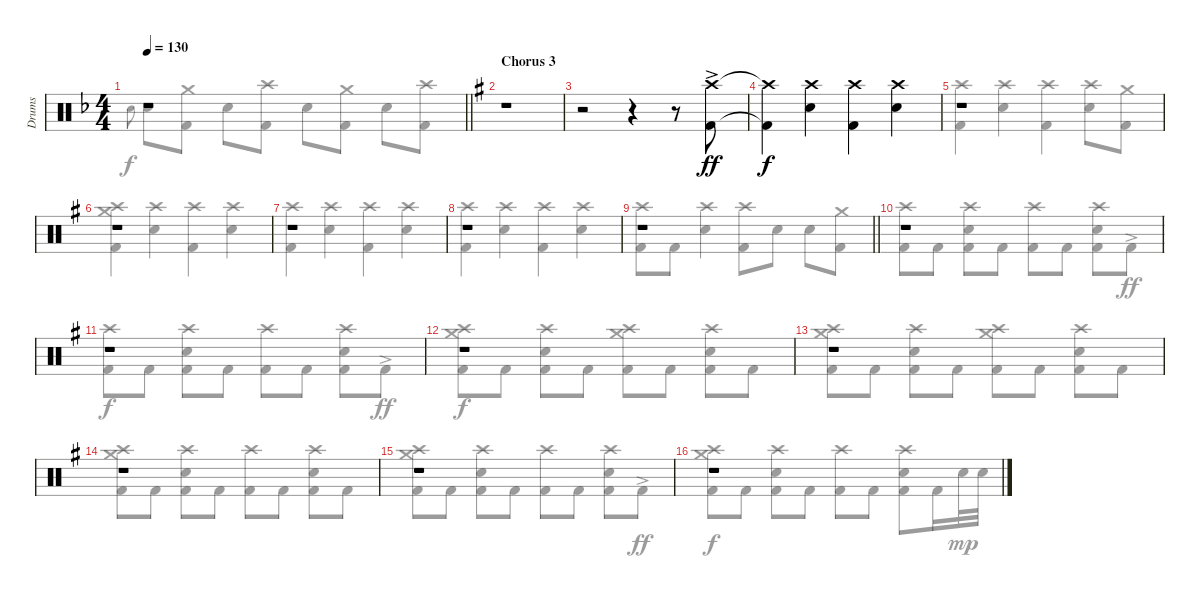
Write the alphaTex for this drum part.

\track ("Drums" "Drums") {instrument percussion}
\staff {score}
\articulation defaults
\voice
\ts (4 4)
\tempo 130
\clef neutral
\barLineRight lightlight
\ks dminor
r.1{dy ff} |
\section ("" "Chorus 3")
\ks eminor
r.1 |
r.2 r.4 r.8 ("Crash high (hit)"{ac} "Kick (hit) 2"{ac}).8 |
("Crash high (hit)"{t} "Kick (hit) 2"{t}).4{dy f} ("Crash high (hit)" "Snare (hit) 2").4 ("Crash high (hit)" "Kick (hit) 2").4 ("Crash high (hit)" "Snare (hit) 2").4 |
r.1 |
r.1 |
r.1 |
r.1 |
\barLineRight lightlight
r.1 |
r.1 |
r.1 |
r.1 |
r.1 |
r.1 |
r.1 |
r.1
\voice
\clef neutral
\ottava regular
\simile none
\barLineRight lightlight
\ks dminor "Snare (hit) 2".8{gr onbeat dy f} "Snare (hit) 2".8
("Crash medium (hit)" "Kick (hit) 2").8 "Snare (hit) 2".8 ("Crash high (hit)" "Kick (hit) 2").8 "Snare (hit) 2".8 ("Crash medium (hit)" "Kick (hit) 2").8 "Snare (hit) 2".8 ("Crash high (hit)" "Kick (hit) 2").8 |
\ks eminor
|
|
|
("Crash high (hit)" "Kick (hit) 2").4 ("Crash high (hit)" "Snare (hit) 2").4 ("Crash high (hit)" "Kick (hit) 2").4 ("Crash high (hit)" "Snare (hit) 2").8 ("Crash medium (hit)" "Kick (hit) 2").8 |
("Crash medium (hit)" "Crash high (hit)" "Kick (hit) 2").4 ("Crash high (hit)" "Snare (hit) 2").4 ("Crash high (hit)" "Kick (hit) 2").4 ("Crash high (hit)" "Snare (hit) 2").4 |
("Crash high (hit)" "Kick (hit) 2").4 ("Crash high (hit)" "Snare (hit) 2").4 ("Crash high (hit)" "Kick (hit) 2").4 ("Crash high (hit)" "Snare (hit) 2").4 |
("Crash high (hit)" "Kick (hit) 2").4 ("Crash high (hit)" "Snare (hit) 2").4 ("Crash high (hit)" "Kick (hit) 2").4 ("Crash high (hit)" "Snare (hit) 2").4 |
\barLineRight lightlight
("Crash high (hit)" "Kick (hit) 2").8 "Kick (hit) 2".8 ("Crash high (hit)" "Snare (hit) 2").4 ("Crash high (hit)" "Kick (hit) 2").8 "Snare (hit) 2".8 "Snare (hit) 2".8 ("Crash medium (hit)" "Kick (hit) 2").8 |
("Crash high (hit)" "Kick (hit) 2").8 "Kick (hit) 2".8 ("Crash high (hit)" "Snare (hit) 2" "Kick (hit) 2").8 "Kick (hit) 2".8 ("Crash high (hit)" "Kick (hit) 2").8 "Kick (hit) 2".8 ("Crash high (hit)" "Snare (hit) 2" "Kick (hit) 2").8 "Kick (hit) 2"{ac}.8{dy ff} |
("Crash high (hit)" "Kick (hit) 2").8{dy f} "Kick (hit) 2".8 ("Crash high (hit)" "Snare (hit) 2" "Kick (hit) 2").8 "Kick (hit) 2".8 ("Crash high (hit)" "Kick (hit) 2").8 "Kick (hit) 2".8 ("Crash high (hit)" "Snare (hit) 2" "Kick (hit) 2").8 "Kick (hit) 2"{ac}.8{dy ff} |
("Crash medium (hit)" "Crash high (hit)" "Kick (hit) 2").8{dy f} "Kick (hit) 2".8 ("Crash high (hit)" "Snare (hit) 2" "Kick (hit) 2").8 "Kick (hit) 2".8 ("Crash medium (hit)" "Crash high (hit)" "Kick (hit) 2").8 "Kick (hit) 2".8 ("Crash high (hit)" "Snare (hit) 2" "Kick (hit) 2").8 "Kick (hit) 2".8 |
("Crash medium (hit)" "Crash high (hit)" "Kick (hit) 2").8 "Kick (hit) 2".8 ("Crash high (hit)" "Snare (hit) 2" "Kick (hit) 2").8 "Kick (hit) 2".8 ("Crash medium (hit)" "Crash high (hit)" "Kick (hit) 2").8 "Kick (hit) 2".8 ("Crash high (hit)" "Snare (hit) 2" "Kick (hit) 2").8 "Kick (hit) 2".8 |
("Crash medium (hit)" "Crash high (hit)" "Kick (hit) 2").8 "Kick (hit) 2".8 ("Crash high (hit)" "Snare (hit) 2" "Kick (hit) 2").8 "Kick (hit) 2".8 ("Crash high (hit)" "Kick (hit) 2").8 "Kick (hit) 2".8 ("Crash high (hit)" "Snare (hit) 2" "Kick (hit) 2").8 "Kick (hit) 2".8 |
("Crash medium (hit)" "Crash high (hit)" "Kick (hit) 2").8 "Kick (hit) 2".8 ("Crash high (hit)" "Snare (hit) 2" "Kick (hit) 2").8 "Kick (hit) 2".8 ("Crash high (hit)" "Kick (hit) 2").8 "Kick (hit) 2".8 ("Crash high (hit)" "Snare (hit) 2" "Kick (hit) 2").8 "Kick (hit) 2"{ac}.8{dy ff} |
("Crash medium (hit)" "Crash high (hit)" "Kick (hit) 2").8{dy f} "Kick (hit) 2".8 ("Crash high (hit)" "Snare (hit) 2" "Kick (hit) 2").8 "Kick (hit) 2".8 ("Crash high (hit)" "Kick (hit) 2").8 "Kick (hit) 2".8 ("Crash high (hit)" "Snare (hit) 2" "Kick (hit) 2").8 "Kick (hit) 2".16 "Snare (hit) 2".32{dy mp} "Snare (hit) 2".32
